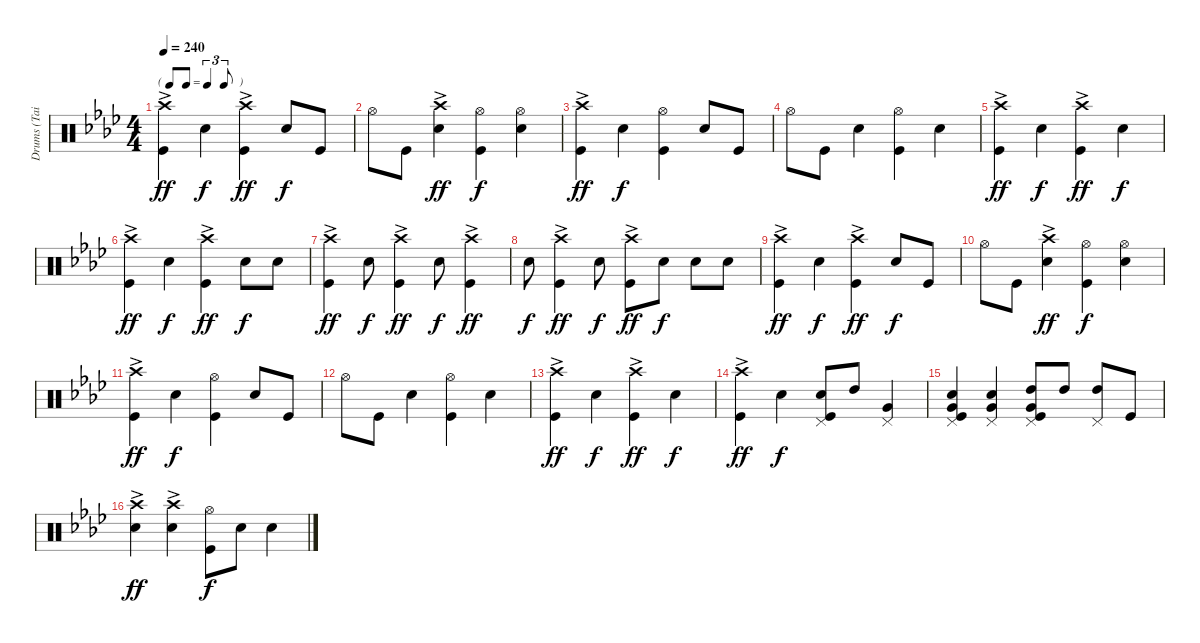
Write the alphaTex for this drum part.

\track ("Drums (Tainaka Ritsu)" "Drums (Tai") {instrument percussion}
\staff {score}
\articulation defaults
\ts (4 4)
\tf triplet8th
\tempo 240
\clef neutral
\ks ab
("Crash high (hit)"{ac} "Kick (hit)").4{dy ff} "Snare (hit) 2".4{dy f} ("Crash high (hit)"{ac} "Kick (hit)").4{dy ff} "Snare (hit) 2".8{dy f} "Kick (hit)".8 |
"Hi-Hat (open)".8 "Kick (hit)".8 ("Crash high (hit)"{ac} "Snare (hit) 2").4{dy ff} ("Kick (hit)" "Hi-Hat (open)").4{dy f} ("Hi-Hat (open)" "Snare (hit) 2").4 |
("Crash high (hit)"{ac} "Kick (hit)").4{dy ff} "Snare (hit) 2".4{dy f} ("Hi-Hat (open)" "Kick (hit)").4 "Snare (hit) 2".8 "Kick (hit)".8 |
"Hi-Hat (open)".8 "Kick (hit)".8 "Snare (hit) 2".4 ("Hi-Hat (open)" "Kick (hit)").4 "Snare (hit) 2".4 |
("Crash high (hit)"{ac} "Kick (hit)").4{dy ff} "Snare (hit) 2".4{dy f} ("Crash high (hit)"{ac} "Kick (hit)").4{dy ff} "Snare (hit) 2".4{dy f} |
("Crash high (hit)"{ac} "Kick (hit)").4{dy ff} "Snare (hit) 2".4{dy f} ("Crash high (hit)"{ac} "Kick (hit)").4{dy ff} "Snare (hit) 2".8{dy f} "Snare (hit) 2".8 |
("Crash high (hit)"{ac} "Kick (hit)").4{dy ff} "Snare (hit) 2".8{dy f} ("Kick (hit)" "Crash high (hit)"{ac}).4{dy ff} "Snare (hit) 2".8{dy f} ("Kick (hit)" "Crash high (hit)"{ac}).4{dy ff} |
"Snare (hit) 2".8{dy f} ("Kick (hit)" "Crash high (hit)"{ac}).4{dy ff} "Snare (hit) 2".8{dy f} ("Kick (hit)" "Crash high (hit)"{ac}).8{dy ff} "Snare (hit) 2".8{dy f} "Snare (hit) 2".8 "Snare (hit) 2".8 |
("Crash high (hit)"{ac} "Kick (hit)").4{dy ff} "Snare (hit) 2".4{dy f} ("Crash high (hit)"{ac} "Kick (hit)").4{dy ff} "Snare (hit) 2".8{dy f} "Kick (hit)".8 |
"Hi-Hat (open)".8 "Kick (hit)".8 ("Crash high (hit)"{ac} "Snare (hit) 2").4{dy ff} ("Kick (hit)" "Hi-Hat (open)").4{dy f} ("Hi-Hat (open)" "Snare (hit) 2").4 |
("Crash high (hit)"{ac} "Kick (hit)").4{dy ff} "Snare (hit) 2".4{dy f} ("Hi-Hat (open)" "Kick (hit)").4 "Snare (hit) 2".8 "Kick (hit)".8 |
"Hi-Hat (open)".8 "Kick (hit)".8 "Snare (hit) 2".4 ("Hi-Hat (open)" "Kick (hit)").4 "Snare (hit) 2".4 |
("Crash high (hit)"{ac} "Kick (hit)").4{dy ff} "Snare (hit) 2".4{dy f} ("Crash high (hit)"{ac} "Kick (hit)").4{dy ff} "Snare (hit) 2".4{dy f} |
("Crash high (hit)"{ac} "Kick (hit)").4{dy ff} "Snare (hit) 2".4{dy f} ("Kick (hit)" "Snare (hit) 2" "Pedal Hi-Hat (hit)").8 "High Tom (hit)".8 ("Very Low Tom (hit)" "Pedal Hi-Hat (hit)").4 |
("Snare (hit) 2" "Very Low Tom (hit)" "Kick (hit)" "Pedal Hi-Hat (hit)").4 ("Snare (hit) 2" "Very Low Tom (hit)" "Pedal Hi-Hat (hit)").4 ("Kick (hit)" "Very Low Tom (hit)" "High Tom (hit)" "Pedal Hi-Hat (hit)").8 "High Tom (hit)".8 ("High Tom (hit)" "Pedal Hi-Hat (hit)").8 "Kick (hit)".8 |
("Crash high (hit)"{ac} "Snare (hit) 2").4{dy ff} ("Snare (hit) 2" "Crash high (hit)"{ac}).4 ("Hi-Hat (open)" "Kick (hit)").8{dy f} "Snare (hit) 2".8 "Snare (hit) 2".4
